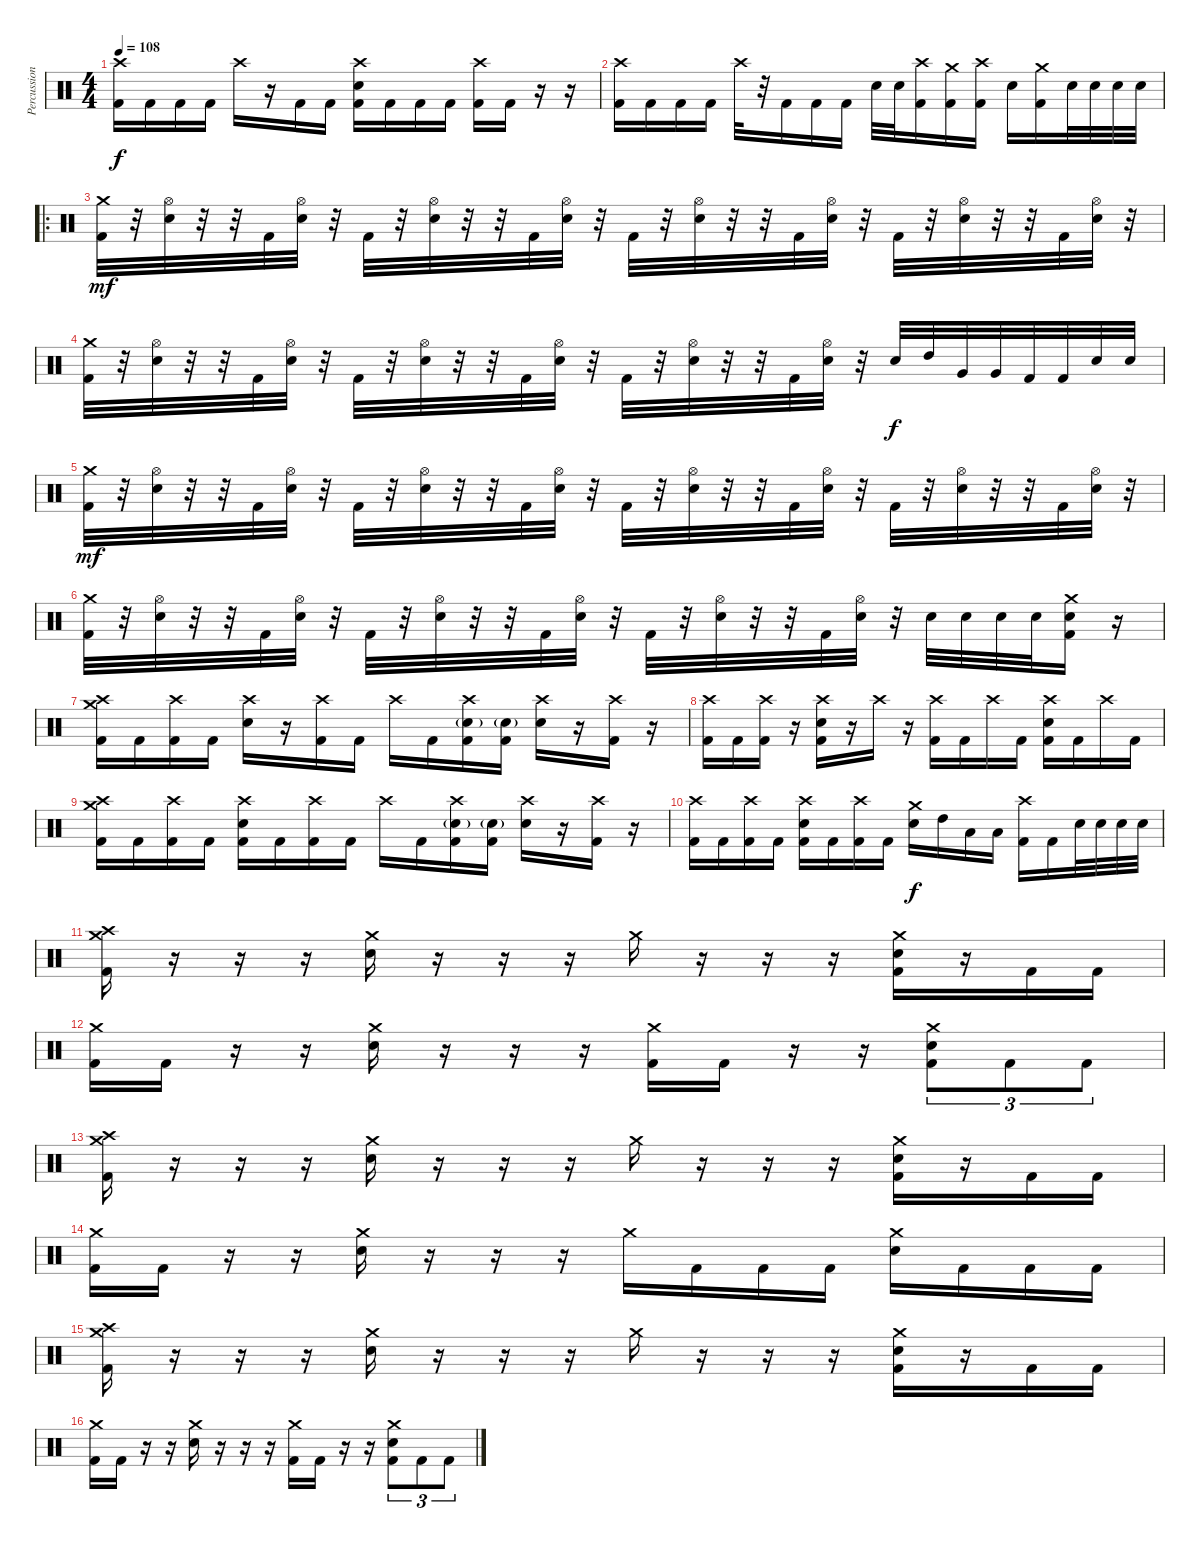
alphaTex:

\track ("Percussion" "Percussion") {instrument percussion}
\staff {score}
\articulation defaults
\ts (4 4)
\tempo 108
\clef neutral
\ks c
("Crash high (hit)" "Kick (hit) 2").16{dy f} "Kick (hit) 2".16 "Kick (hit) 2".16 "Kick (hit) 2".16 "Crash high (hit)".16 r.16 "Kick (hit) 2".16 "Kick (hit) 2".16 ("Crash high (hit)" "Electric Snare (hit)" "Kick (hit) 2").16 "Kick (hit) 2".16 "Kick (hit) 2".16 "Kick (hit) 2".16 ("Crash high (hit)" "Kick (hit) 2").16 "Kick (hit) 2".16 r.16 r.16 |
("Crash high (hit)" "Kick (hit) 2").16 "Kick (hit) 2".16 "Kick (hit) 2".16 "Kick (hit) 2".16 "Crash high (hit)".32 r.32 "Kick (hit) 2".16 "Kick (hit) 2".16 "Kick (hit) 2".16 "Electric Snare (hit)".32 "Electric Snare (hit)".32 ("Crash high (hit)" "Kick (hit) 2").16 ("Crash medium (hit)" "Kick (hit) 2").16 ("Crash high (hit)" "Kick (hit) 2").16 "Electric Snare (hit)".16 ("Crash medium (hit)" "Kick (hit) 2").16 "Electric Snare (hit)".32 "Electric Snare (hit)".32 "Electric Snare (hit)".32 "Electric Snare (hit)".32 |
\ro
("Crash medium (hit)" "Kick (hit) 2").32{dy mf} r.32 ("Hi-Hat (open)" "Electric Snare (hit)").32 r.32 r.32 "Kick (hit) 2".32 ("Hi-Hat (open)" "Electric Snare (hit)").32 r.32 "Kick (hit) 2".32 r.32 ("Hi-Hat (open)" "Electric Snare (hit)").32 r.32 r.32 "Kick (hit) 2".32 ("Hi-Hat (open)" "Electric Snare (hit)").32 r.32 "Kick (hit) 2".32 r.32 ("Hi-Hat (open)" "Electric Snare (hit)").32 r.32 r.32 "Kick (hit) 2".32 ("Hi-Hat (open)" "Electric Snare (hit)").32 r.32 "Kick (hit) 2".32 r.32 ("Hi-Hat (open)" "Electric Snare (hit)").32 r.32 r.32 "Kick (hit) 2".32 ("Hi-Hat (open)" "Electric Snare (hit)").32 r.32 |
("Crash medium (hit)" "Kick (hit) 2").32 r.32 ("Hi-Hat (open)" "Electric Snare (hit)").32 r.32 r.32 "Kick (hit) 2".32 ("Hi-Hat (open)" "Electric Snare (hit)").32 r.32 "Kick (hit) 2".32 r.32 ("Hi-Hat (open)" "Electric Snare (hit)").32 r.32 r.32 "Kick (hit) 2".32 ("Hi-Hat (open)" "Electric Snare (hit)").32 r.32 "Kick (hit) 2".32 r.32 ("Hi-Hat (open)" "Electric Snare (hit)").32 r.32 r.32 "Kick (hit) 2".32 ("Hi-Hat (open)" "Electric Snare (hit)").32 r.32 "Electric Snare (hit)".32{dy f} "High Tom (hit)".32 "Very Low Tom (hit)".32 "Very Low Tom (hit)".32 "Kick (hit) 2".32 "Kick (hit) 2".32 "Electric Snare (hit)".32 "Electric Snare (hit)".32 |
("Crash medium (hit)" "Kick (hit) 2").32{dy mf} r.32 ("Hi-Hat (open)" "Electric Snare (hit)").32 r.32 r.32 "Kick (hit) 2".32 ("Hi-Hat (open)" "Electric Snare (hit)").32 r.32 "Kick (hit) 2".32 r.32 ("Hi-Hat (open)" "Electric Snare (hit)").32 r.32 r.32 "Kick (hit) 2".32 ("Hi-Hat (open)" "Electric Snare (hit)").32 r.32 "Kick (hit) 2".32 r.32 ("Hi-Hat (open)" "Electric Snare (hit)").32 r.32 r.32 "Kick (hit) 2".32 ("Hi-Hat (open)" "Electric Snare (hit)").32 r.32 "Kick (hit) 2".32 r.32 ("Hi-Hat (open)" "Electric Snare (hit)").32 r.32 r.32 "Kick (hit) 2".32 ("Hi-Hat (open)" "Electric Snare (hit)").32 r.32 |
("Crash medium (hit)" "Kick (hit) 2").32 r.32 ("Hi-Hat (open)" "Electric Snare (hit)").32 r.32 r.32 "Kick (hit) 2".32 ("Hi-Hat (open)" "Electric Snare (hit)").32 r.32 "Kick (hit) 2".32 r.32 ("Hi-Hat (open)" "Electric Snare (hit)").32 r.32 r.32 "Kick (hit) 2".32 ("Hi-Hat (open)" "Electric Snare (hit)").32 r.32 "Kick (hit) 2".32 r.32 ("Hi-Hat (open)" "Electric Snare (hit)").32 r.32 r.32 "Kick (hit) 2".32 ("Hi-Hat (open)" "Electric Snare (hit)").32 r.32 "Electric Snare (hit)".32 "Electric Snare (hit)".32 "Electric Snare (hit)".32 "Electric Snare (hit)".32 ("Crash medium (hit)" "Electric Snare (hit)" "Kick (hit) 2").16 r.16 |
("Crash medium (hit)" "Crash high (hit)" "Kick (hit) 2").16 "Kick (hit) 2".16 ("Crash high (hit)" "Kick (hit) 2").16 "Kick (hit) 2".16 ("Crash high (hit)" "Electric Snare (hit)").16 r.16 ("Crash high (hit)" "Kick (hit) 2").16 "Kick (hit) 2".16 "Crash high (hit)".16 "Kick (hit) 2".16 ("Crash high (hit)" "Electric Snare (hit)"{g} "Kick (hit) 2").16 ("Electric Snare (hit)"{g} "Kick (hit) 2").16 ("Crash high (hit)" "Electric Snare (hit)").16 r.16 ("Crash high (hit)" "Kick (hit) 2").16 r.16 |
("Crash high (hit)" "Kick (hit) 2").16 "Kick (hit) 2".16 ("Crash high (hit)" "Kick (hit) 2").16 r.16 ("Crash high (hit)" "Electric Snare (hit)" "Kick (hit) 2").16 r.16 "Crash high (hit)".16 r.16 ("Crash high (hit)" "Kick (hit) 2").16 "Kick (hit) 2".16 "Crash high (hit)".16 "Kick (hit) 2".16 ("Crash high (hit)" "Electric Snare (hit)" "Kick (hit) 2").16 "Kick (hit) 2".16 "Crash high (hit)".16 "Kick (hit) 2".16 |
("Crash medium (hit)" "Crash high (hit)" "Kick (hit) 2").16 "Kick (hit) 2".16 ("Crash high (hit)" "Kick (hit) 2").16 "Kick (hit) 2".16 ("Crash high (hit)" "Electric Snare (hit)" "Kick (hit) 2").16 "Kick (hit) 2".16 ("Crash high (hit)" "Kick (hit) 2").16 "Kick (hit) 2".16 "Crash high (hit)".16 "Kick (hit) 2".16 ("Crash high (hit)" "Electric Snare (hit)"{g} "Kick (hit) 2").16 ("Electric Snare (hit)"{g} "Kick (hit) 2").16 ("Crash high (hit)" "Electric Snare (hit)").16 r.16 ("Crash high (hit)" "Kick (hit) 2").16 r.16 |
("Crash high (hit)" "Kick (hit) 2").16 "Kick (hit) 2".16 ("Crash high (hit)" "Kick (hit) 2").16 "Kick (hit) 2".16 ("Crash high (hit)" "Electric Snare (hit)" "Kick (hit) 2").16 "Kick (hit) 2".16 ("Crash high (hit)" "Kick (hit) 2").16 "Kick (hit) 2".16 ("Crash medium (hit)" "Electric Snare (hit)").16{dy f} "High Tom (hit)".16 "Low Tom (hit)".16 "Low Tom (hit)".16 ("Crash high (hit)" "Kick (hit) 2").16 "Kick (hit) 2".16 "Electric Snare (hit)".32 "Electric Snare (hit)".32 "Electric Snare (hit)".32 "Electric Snare (hit)".32 |
("Crash medium (hit)" "Crash high (hit)" "Kick (hit) 2").16 r.16 r.16 r.16 ("Crash medium (hit)" "Electric Snare (hit)").16 r.16 r.16 r.16 "Crash medium (hit)".16 r.16 r.16 r.16 ("Crash medium (hit)" "Electric Snare (hit)" "Kick (hit) 2").16 r.16 "Kick (hit) 2".16 "Kick (hit) 2".16 |
("Crash medium (hit)" "Kick (hit) 2").16 "Kick (hit) 2".16 r.16 r.16 ("Crash medium (hit)" "Electric Snare (hit)").16 r.16 r.16 r.16 ("Crash medium (hit)" "Kick (hit) 2").16 "Kick (hit) 2".16 r.16 r.16 ("Crash medium (hit)" "Electric Snare (hit)" "Kick (hit) 2").8{tu (3 2)} "Kick (hit) 2".8{tu (3 2)} "Kick (hit) 2".8{tu (3 2)} |
("Crash medium (hit)" "Crash high (hit)" "Kick (hit) 2").16 r.16 r.16 r.16 ("Crash medium (hit)" "Electric Snare (hit)").16 r.16 r.16 r.16 "Crash medium (hit)".16 r.16 r.16 r.16 ("Crash medium (hit)" "Electric Snare (hit)" "Kick (hit) 2").16 r.16 "Kick (hit) 2".16 "Kick (hit) 2".16 |
("Crash medium (hit)" "Kick (hit) 2").16 "Kick (hit) 2".16 r.16 r.16 ("Crash medium (hit)" "Electric Snare (hit)").16 r.16 r.16 r.16 "Crash medium (hit)".16 "Kick (hit) 2".16 "Kick (hit) 2".16 "Kick (hit) 2".16 ("Crash medium (hit)" "Electric Snare (hit)").16 "Kick (hit) 2".16 "Kick (hit) 2".16 "Kick (hit) 2".16 |
("Crash medium (hit)" "Crash high (hit)" "Kick (hit) 2").16 r.16 r.16 r.16 ("Crash medium (hit)" "Electric Snare (hit)").16 r.16 r.16 r.16 "Crash medium (hit)".16 r.16 r.16 r.16 ("Crash medium (hit)" "Electric Snare (hit)" "Kick (hit) 2").16 r.16 "Kick (hit) 2".16 "Kick (hit) 2".16 |
("Crash medium (hit)" "Kick (hit) 2").16 "Kick (hit) 2".16 r.16 r.16 ("Crash medium (hit)" "Electric Snare (hit)").16 r.16 r.16 r.16 ("Crash medium (hit)" "Kick (hit) 2").16 "Kick (hit) 2".16 r.16 r.16 ("Crash medium (hit)" "Electric Snare (hit)" "Kick (hit) 2").8{tu (3 2)} "Kick (hit) 2".8{tu (3 2)} "Kick (hit) 2".8{tu (3 2)}
